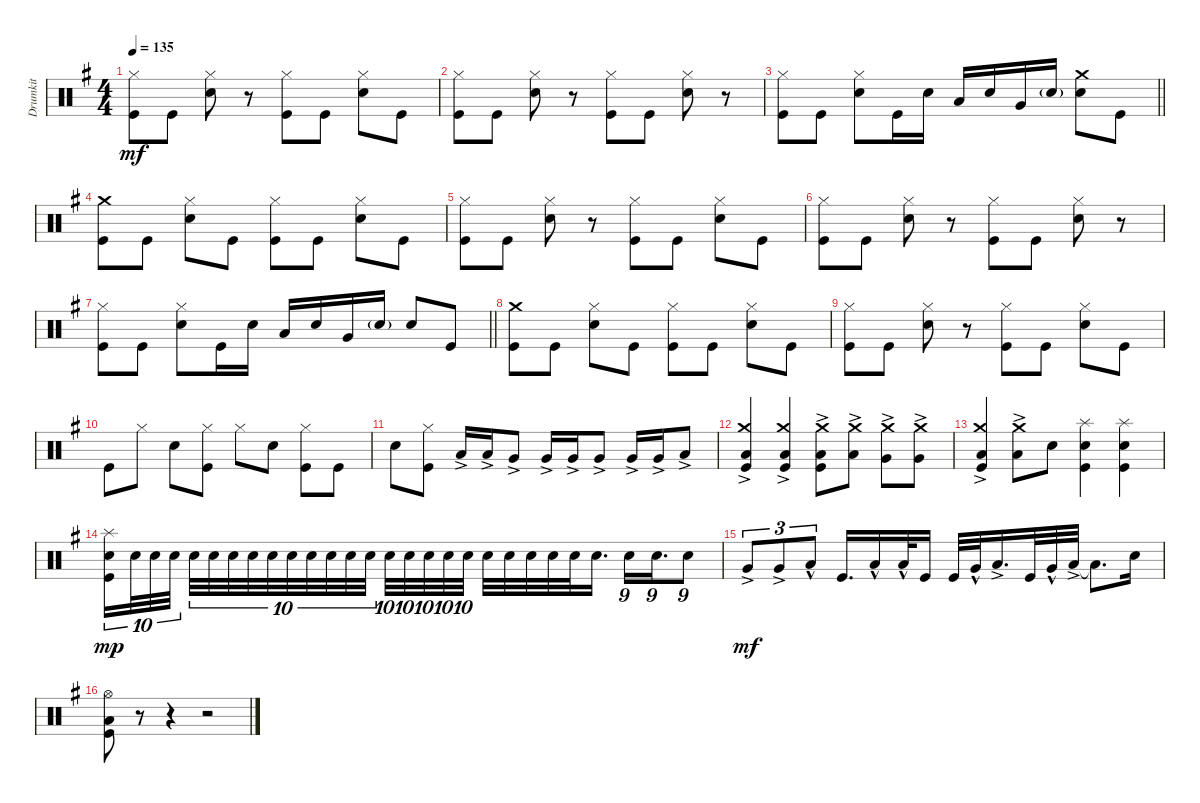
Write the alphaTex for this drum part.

\track ("Drumkit" "Drumkit") {instrument percussion}
\staff {score}
\articulation defaults
\ts (4 4)
\tempo 135
\clef neutral
\ks g
("Kick (hit)" "Hi-Hat (closed)").8{dy mf} "Kick (hit)".8 ("Snare (hit) 2" "Hi-Hat (closed)").8 r.8 ("Kick (hit)" "Hi-Hat (closed)").8 "Kick (hit)".8 ("Snare (hit) 2" "Hi-Hat (closed)").8 "Kick (hit)".8 |
("Kick (hit)" "Hi-Hat (closed)").8 "Kick (hit)".8 ("Snare (hit) 2" "Hi-Hat (closed)").8 r.8 ("Kick (hit)" "Hi-Hat (closed)").8 "Kick (hit)".8 ("Snare (hit) 2" "Hi-Hat (closed)").8 r.8 |
\barLineRight lightlight
("Kick (hit)" "Hi-Hat (closed)").8 "Kick (hit)".8 ("Snare (hit) 2" "Hi-Hat (closed)").8 "Kick (hit)".16 "Snare (hit) 2".16 "Low Tom (hit)".16 "Snare (hit) 2".16 "Very Low Tom (hit)".16 "Snare (hit) 2"{g}.16 ("Snare (hit) 2" "Crash medium (hit)").8 "Kick (hit)".8 |
("Kick (hit)" "Crash medium (hit)").8 "Kick (hit)".8 ("Snare (hit) 2" "Hi-Hat (closed)").8 "Kick (hit)".8 ("Kick (hit)" "Hi-Hat (closed)").8 "Kick (hit)".8 ("Snare (hit) 2" "Hi-Hat (closed)").8 "Kick (hit)".8 |
("Kick (hit)" "Hi-Hat (closed)").8 "Kick (hit)".8 ("Snare (hit) 2" "Hi-Hat (closed)").8 r.8 ("Kick (hit)" "Hi-Hat (closed)").8 "Kick (hit)".8 ("Snare (hit) 2" "Hi-Hat (closed)").8 "Kick (hit)".8 |
("Kick (hit)" "Hi-Hat (closed)").8 "Kick (hit)".8 ("Snare (hit) 2" "Hi-Hat (closed)").8 r.8 ("Kick (hit)" "Hi-Hat (closed)").8 "Kick (hit)".8 ("Snare (hit) 2" "Hi-Hat (closed)").8 r.8 |
\barLineRight lightlight
("Kick (hit)" "Hi-Hat (closed)").8 "Kick (hit)".8 ("Snare (hit) 2" "Hi-Hat (closed)").8 "Kick (hit)".16 "Snare (hit) 2".16 "Low Tom (hit)".16 "Snare (hit) 2".16 "Very Low Tom (hit)".16 "Snare (hit) 2"{g}.16 "Snare (hit) 2".8 "Kick (hit)".8 |
("Kick (hit)" "Crash medium (hit)").8 "Kick (hit)".8 ("Snare (hit) 2" "Hi-Hat (closed)").8 "Kick (hit)".8 ("Kick (hit)" "Hi-Hat (closed)").8 "Kick (hit)".8 ("Snare (hit) 2" "Hi-Hat (closed)").8 "Kick (hit)".8 |
("Kick (hit)" "Hi-Hat (closed)").8 "Kick (hit)".8 ("Snare (hit) 2" "Hi-Hat (closed)").8 r.8 ("Kick (hit)" "Hi-Hat (closed)").8 "Kick (hit)".8 ("Snare (hit) 2" "Hi-Hat (closed)").8 "Kick (hit)".8 |
"Kick (hit)".8 "Hi-Hat (closed)".8 "Snare (hit) 2".8 ("Hi-Hat (closed)" "Kick (hit)").8 "Hi-Hat (closed)".8 "Snare (hit) 2".8 ("Hi-Hat (closed)" "Kick (hit)").8 "Kick (hit)".8 |
"Snare (hit) 2".8 ("Hi-Hat (closed)" "Kick (hit)").8 "Low Tom (hit)"{ac}.16 "Low Tom (hit)"{ac}.16 "Very Low Tom (hit)"{ac}.8 "Very Low Tom (hit)"{ac}.16 "Very Low Tom (hit)"{ac}.16 "Very Low Tom (hit)"{ac}.8 "Very Low Tom (hit)"{ac}.16 "Very Low Tom (hit)"{ac}.16 "Low Floor Tom (hit)"{ac}.8 |
("Crash medium (hit)" "Kick (hit)" "Low Floor Tom (hit)"{ac}).4 ("Crash medium (hit)" "Kick (hit)" "Low Floor Tom (hit)"{ac}).4 ("Crash medium (hit)" "Kick (hit)" "Low Tom (hit)"{ac}).8 ("Crash medium (hit)" "Low Tom (hit)"{ac}).8 ("Crash medium (hit)" "Very Low Tom (hit)"{ac}).8 ("Crash medium (hit)" "Very Low Tom (hit)"{ac}).8 |
("Crash medium (hit)" "Kick (hit)" "Low Floor Tom (hit)"{ac}).4 ("Crash medium (hit)" "Low Floor Tom (hit)"{ac}).8 "Snare (hit) 2".8 ("Snare (hit) 2" "Splash (hit)" "Kick (hit)").4 ("Snare (hit) 2" "Splash (hit)" "Kick (hit)").4 |
("Snare (hit) 2" "Splash (hit)" "Kick (hit)").16{tu (10 8) dy mp} "Snare (hit) 2".32{tu (10 8)} "Snare (hit) 2".32{tu (10 8)} "Snare (hit) 2".32{tu (10 8) beam splitsecondary} "Snare (hit) 2".32{tu (10 8)} "Snare (hit) 2".32{tu (10 8)} "Snare (hit) 2".32{tu (10 8)} "Snare (hit) 2".32{tu (10 8)} "Snare (hit) 2".32{tu (10 8)} "Snare (hit) 2".32{tu (10 8)} "Snare (hit) 2".32{tu (10 8)} "Snare (hit) 2".32{tu (10 8)} "Snare (hit) 2".32{tu (10 8)} "Snare (hit) 2".32{tu (10 8) beam splitsecondary} "Snare (hit) 2".32{tu (10 8)} "Snare (hit) 2".32{tu (10 8)} "Snare (hit) 2".32{tu (10 8)} "Snare (hit) 2".32{tu (10 8)} "Snare (hit) 2".32{tu (10 8)} "Snare (hit) 2".32 "Snare (hit) 2".32 "Snare (hit) 2".32 "Snare (hit) 2".32 "Snare (hit) 2".32 "Snare (hit) 2".16{d} "Snare (hit) 2".16{tu (9 8)} "Snare (hit) 2".16{d tu (9 8)} "Snare (hit) 2".8{tu (9 8)} |
"Very Low Tom (hit)"{ac}.8{tu (3 2) dy mf} "Very Low Tom (hit)"{ac}.8{tu (3 2)} "Low Floor Tom (hit)"{hac}.8{tu (3 2)} "Kick (hit)".16{d} "Low Floor Tom (hit)"{hac}.16 "Low Floor Tom (hit)"{hac}.32 "Kick (hit)".16 "Kick (hit)".32 "Very Low Tom (hit)"{hac}.32 "Low Floor Tom (hit)"{ac}.16{d} "Kick (hit)".32 "Very Low Tom (hit)"{hac}.32 "Low Floor Tom (hit)"{ac}.32 "Low Floor Tom (hit)"{t}.8{d} "Snare (hit) 2".16 |
("Kick (hit)" "Hi-Hat (open)" "Low Floor Tom (hit)").8 r.8 r.4 r.2
